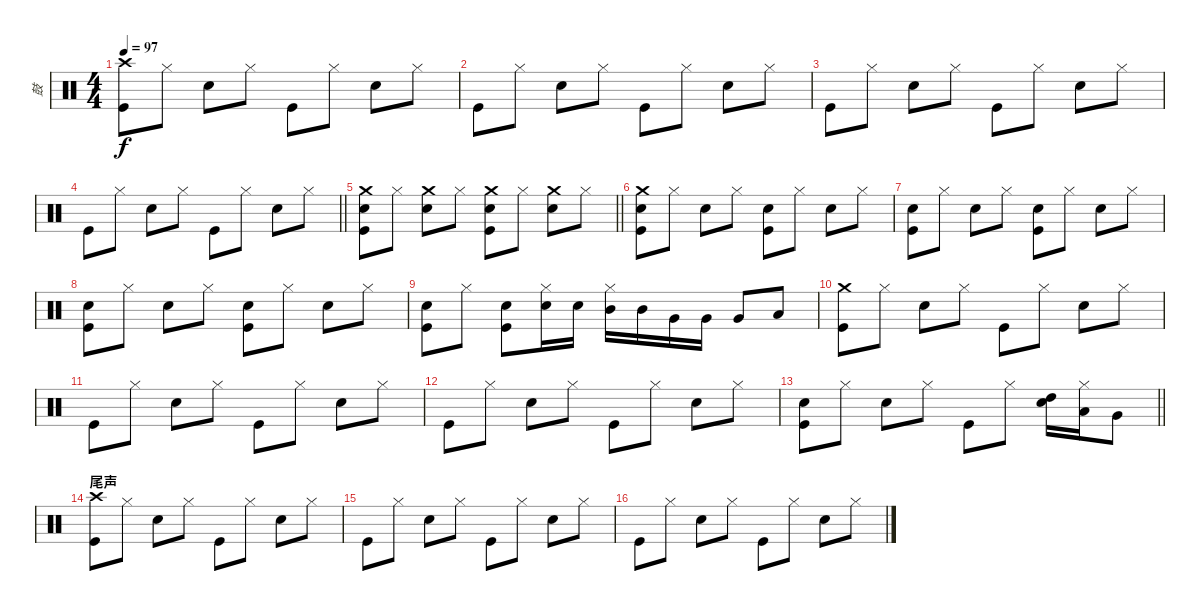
\track ("鼓" "鼓") {instrument percussion}
\staff {score}
\articulation defaults
\ts (4 4)
\tempo 97
\clef neutral
\ks c
("Crash high (hit)" "Kick (hit)").8{dy f} "Hi-Hat (closed)".8 "Electric Snare (hit)".8 "Hi-Hat (closed)".8 "Kick (hit)".8 "Hi-Hat (closed)".8 "Electric Snare (hit)".8 "Hi-Hat (closed)".8 |
"Kick (hit)".8 "Hi-Hat (closed)".8 "Electric Snare (hit)".8 "Hi-Hat (closed)".8 "Kick (hit)".8 "Hi-Hat (closed)".8 "Electric Snare (hit)".8 "Hi-Hat (closed)".8 |
"Kick (hit)".8 "Hi-Hat (closed)".8 "Electric Snare (hit)".8 "Hi-Hat (closed)".8 "Kick (hit)".8 "Hi-Hat (closed)".8 "Electric Snare (hit)".8 "Hi-Hat (closed)".8 |
\barLineRight lightlight "Kick (hit)".8 "Hi-Hat (closed)".8 "Electric Snare (hit)".8 "Hi-Hat (closed)".8 "Kick (hit)".8 "Hi-Hat (closed)".8 "Electric Snare (hit)".8 "Hi-Hat (closed)".8
|
\barLineRight lightlight
("Crash medium (hit)" "Electric Snare (hit)" "Kick (hit)").8 "Hi-Hat (closed)".8 ("Crash medium (hit)" "Electric Snare (hit)").8 "Hi-Hat (closed)".8 ("Crash medium (hit)" "Electric Snare (hit)" "Kick (hit)").8 "Hi-Hat (closed)".8 ("Crash medium (hit)" "Electric Snare (hit)").8 "Hi-Hat (closed)".8 |
\section ("" "")
("Crash medium (hit)" "Electric Snare (hit)" "Kick (hit)").8 "Hi-Hat (closed)".8 "Electric Snare (hit)".8 "Hi-Hat (closed)".8 ("Electric Snare (hit)" "Kick (hit)").8 "Hi-Hat (closed)".8 "Electric Snare (hit)".8 "Hi-Hat (closed)".8 |
("Electric Snare (hit)" "Kick (hit)").8 "Hi-Hat (closed)".8 "Electric Snare (hit)".8 "Hi-Hat (closed)".8 ("Electric Snare (hit)" "Kick (hit)").8 "Hi-Hat (closed)".8 "Electric Snare (hit)".8 "Hi-Hat (closed)".8 |
("Electric Snare (hit)" "Kick (hit)").8 "Hi-Hat (closed)".8 "Electric Snare (hit)".8 "Hi-Hat (closed)".8 ("Electric Snare (hit)" "Kick (hit)").8 "Hi-Hat (closed)".8 "Electric Snare (hit)".8 "Hi-Hat (closed)".8 |
("Electric Snare (hit)" "Kick (hit)").8 "Hi-Hat (closed)".8 ("Electric Snare (hit)" "Kick (hit)").8 ("Hi-Hat (closed)" "Electric Snare (hit)").16 "Electric Snare (hit)".16 ("Mid Tom (hit)" "Hi-Hat (closed)").16 "Mid Tom (hit)".16 "Very Low Tom (hit)".16 "Very Low Tom (hit)".16 "Very Low Tom (hit)".8 "Low Floor Tom (hit)".8 |
("Crash medium (hit)" "Kick (hit)").8 "Hi-Hat (closed)".8 "Electric Snare (hit)".8 "Hi-Hat (closed)".8 "Kick (hit)".8 "Hi-Hat (closed)".8 "Electric Snare (hit)".8 "Hi-Hat (closed)".8 |
"Kick (hit)".8 "Hi-Hat (closed)".8 "Electric Snare (hit)".8 "Hi-Hat (closed)".8 "Kick (hit)".8 "Hi-Hat (closed)".8 "Electric Snare (hit)".8 "Hi-Hat (closed)".8 |
"Kick (hit)".8 "Hi-Hat (closed)".8 "Electric Snare (hit)".8 "Hi-Hat (closed)".8 "Kick (hit)".8 "Hi-Hat (closed)".8 "Electric Snare (hit)".8 "Hi-Hat (closed)".8 |
\barLineRight lightlight
("Electric Snare (hit)" "Kick (hit)").8 "Hi-Hat (closed)".8 "Electric Snare (hit)".8 "Hi-Hat (closed)".8 "Kick (hit)".8 "Hi-Hat (closed)".8 ("High Tom (hit)" "Electric Snare (hit)").16 ("Low Tom (hit)" "Hi-Hat (closed)").16 "Very Low Tom (hit)".8 |
\section ("" "尾声")
("Crash high (hit)" "Kick (hit)").8 "Hi-Hat (closed)".8 "Electric Snare (hit)".8 "Hi-Hat (closed)".8 "Kick (hit)".8 "Hi-Hat (closed)".8 "Electric Snare (hit)".8 "Hi-Hat (closed)".8 |
"Kick (hit)".8 "Hi-Hat (closed)".8 "Electric Snare (hit)".8 "Hi-Hat (closed)".8 "Kick (hit)".8 "Hi-Hat (closed)".8 "Electric Snare (hit)".8 "Hi-Hat (closed)".8 |
"Kick (hit)".8 "Hi-Hat (closed)".8 "Electric Snare (hit)".8 "Hi-Hat (closed)".8 "Kick (hit)".8 "Hi-Hat (closed)".8 "Electric Snare (hit)".8 "Hi-Hat (closed)".8
